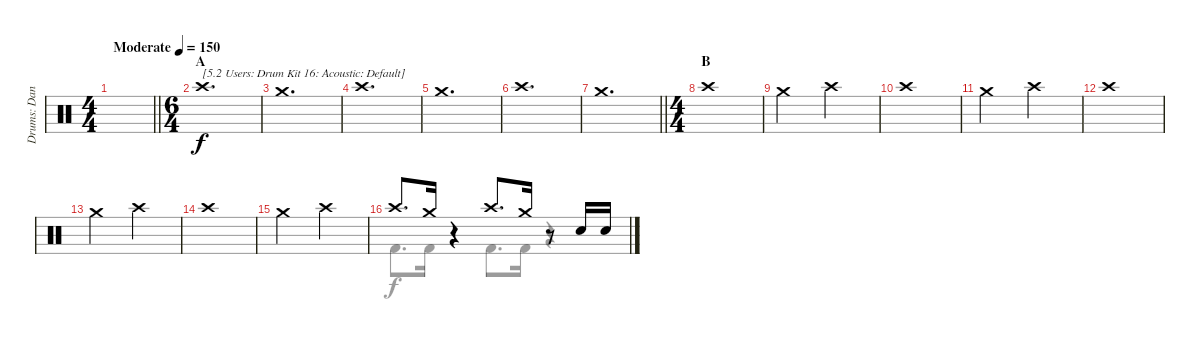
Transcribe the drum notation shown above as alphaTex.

\track ("Drums: Dana" "Drums: Dan") {instrument percussion}
\staff {score}
\articulation defaults
\voice
\ts (4 4)
\tempo (150 "Moderate")
\clef neutral
\barLineRight lightlight
\ks c
|
\ts (6 4)
\section ("" "A")
"Crash high (hit)".1{d txt "[5.2 Users: Drum Kit 16: Acoustic: Default]"} |
"Crash medium (hit)".1{d} |
"Crash high (hit)".1{d} |
"Crash medium (hit)".1{d} |
"Crash high (hit)".1{d} |
\barLineRight lightlight "Crash medium (hit)".1{d}
|
\ts (4 4)
\section ("" "B")
"Crash high (hit)".1 |
"Crash medium (hit)".2 "Crash high (hit)".2 |
"Crash high (hit)".1 |
"Crash medium (hit)".2 "Crash high (hit)".2 |
"Crash high (hit)".1 |
"Crash medium (hit)".2 "Crash high (hit)".2 |
"Crash high (hit)".1 |
"Crash medium (hit)".2 "Crash high (hit)".2 |
"Crash high (hit)".8{d} "Crash medium (hit)".16 r.4 "Crash high (hit)".8{d} "Crash medium (hit)".16 r.8 "Snare (hit) 2".16 "Snare (hit) 2".16
\voice
\clef neutral
\ottava regular
\simile none
\barLineRight lightlight
\ks c
|
|
|
|
|
|
\barLineRight lightlight
|
|
|
|
|
|
|
|
|
"Kick (hit) 2".8{d} "Kick (hit) 2".16 r.4 "Kick (hit) 2".8{d} "Kick (hit) 2".16 r.4
